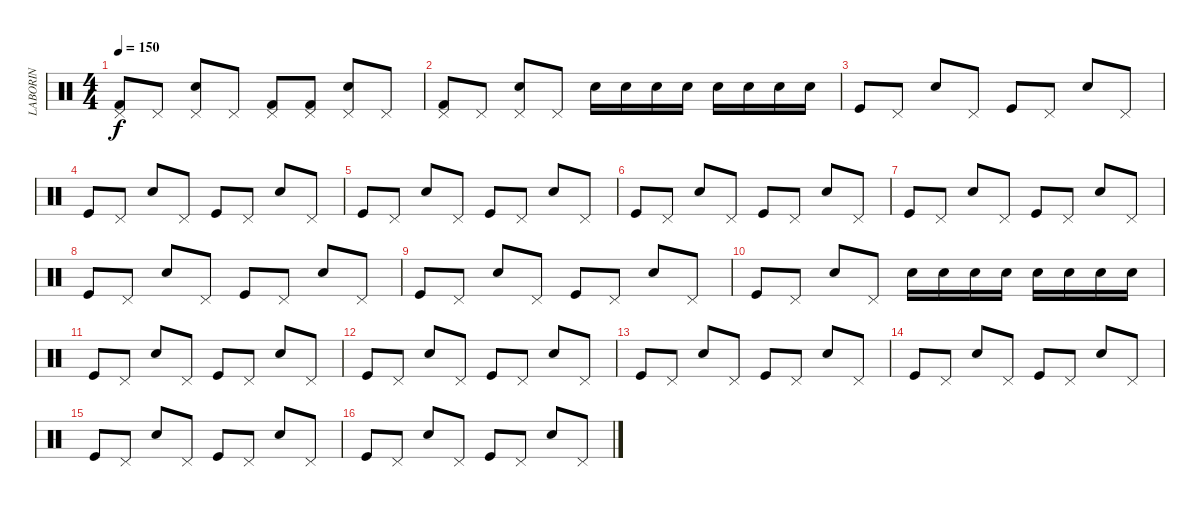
\track ("LABORIN" "LABORIN") {instrument percussion}
\staff {score}
\articulation defaults
\ts (4 4)
\tempo 150
\clef neutral
\ks c
("Kick (hit) 2" "Pedal Hi-Hat (hit)").8{dy f} "Pedal Hi-Hat (hit)".8 ("Snare (hit) 2" "Pedal Hi-Hat (hit)").8 "Pedal Hi-Hat (hit)".8 ("Kick (hit) 2" "Pedal Hi-Hat (hit)").8 ("Kick (hit) 2" "Pedal Hi-Hat (hit)").8 ("Snare (hit) 2" "Pedal Hi-Hat (hit)").8 "Pedal Hi-Hat (hit)".8 |
("Kick (hit) 2" "Pedal Hi-Hat (hit)").8 "Pedal Hi-Hat (hit)".8 ("Snare (hit) 2" "Pedal Hi-Hat (hit)").8 "Pedal Hi-Hat (hit)".8 "Snare (hit) 2".16 "Snare (hit) 2".16 "Snare (hit) 2".16 "Snare (hit) 2".16 "Snare (hit) 2".16 "Snare (hit) 2".16 "Snare (hit) 2".16 "Snare (hit) 2".16 |
"Kick (hit)".8 "Pedal Hi-Hat (hit)".8 "Snare (hit) 2".8 "Pedal Hi-Hat (hit)".8 "Kick (hit)".8 "Pedal Hi-Hat (hit)".8 "Snare (hit) 2".8 "Pedal Hi-Hat (hit)".8 |
"Kick (hit)".8 "Pedal Hi-Hat (hit)".8 "Snare (hit) 2".8 "Pedal Hi-Hat (hit)".8 "Kick (hit)".8 "Pedal Hi-Hat (hit)".8 "Snare (hit) 2".8 "Pedal Hi-Hat (hit)".8 |
"Kick (hit)".8 "Pedal Hi-Hat (hit)".8 "Snare (hit) 2".8 "Pedal Hi-Hat (hit)".8 "Kick (hit)".8 "Pedal Hi-Hat (hit)".8 "Snare (hit) 2".8 "Pedal Hi-Hat (hit)".8 |
"Kick (hit)".8 "Pedal Hi-Hat (hit)".8 "Snare (hit) 2".8 "Pedal Hi-Hat (hit)".8 "Kick (hit)".8 "Pedal Hi-Hat (hit)".8 "Snare (hit) 2".8 "Pedal Hi-Hat (hit)".8 |
"Kick (hit)".8 "Pedal Hi-Hat (hit)".8 "Snare (hit) 2".8 "Pedal Hi-Hat (hit)".8 "Kick (hit)".8 "Pedal Hi-Hat (hit)".8 "Snare (hit) 2".8 "Pedal Hi-Hat (hit)".8 |
"Kick (hit)".8 "Pedal Hi-Hat (hit)".8 "Snare (hit) 2".8 "Pedal Hi-Hat (hit)".8 "Kick (hit)".8 "Pedal Hi-Hat (hit)".8 "Snare (hit) 2".8 "Pedal Hi-Hat (hit)".8 |
"Kick (hit)".8 "Pedal Hi-Hat (hit)".8 "Snare (hit) 2".8 "Pedal Hi-Hat (hit)".8 "Kick (hit)".8 "Pedal Hi-Hat (hit)".8 "Snare (hit) 2".8 "Pedal Hi-Hat (hit)".8 |
"Kick (hit)".8 "Pedal Hi-Hat (hit)".8 "Snare (hit) 2".8 "Pedal Hi-Hat (hit)".8 "Snare (hit) 2".16 "Snare (hit) 2".16 "Snare (hit) 2".16 "Snare (hit) 2".16 "Snare (hit) 2".16 "Snare (hit) 2".16 "Snare (hit) 2".16 "Snare (hit) 2".16 |
"Kick (hit)".8 "Pedal Hi-Hat (hit)".8 "Snare (hit) 2".8 "Pedal Hi-Hat (hit)".8 "Kick (hit)".8 "Pedal Hi-Hat (hit)".8 "Snare (hit) 2".8 "Pedal Hi-Hat (hit)".8 |
"Kick (hit)".8 "Pedal Hi-Hat (hit)".8 "Snare (hit) 2".8 "Pedal Hi-Hat (hit)".8 "Kick (hit)".8 "Pedal Hi-Hat (hit)".8 "Snare (hit) 2".8 "Pedal Hi-Hat (hit)".8 |
"Kick (hit)".8 "Pedal Hi-Hat (hit)".8 "Snare (hit) 2".8 "Pedal Hi-Hat (hit)".8 "Kick (hit)".8 "Pedal Hi-Hat (hit)".8 "Snare (hit) 2".8 "Pedal Hi-Hat (hit)".8 |
"Kick (hit)".8 "Pedal Hi-Hat (hit)".8 "Snare (hit) 2".8 "Pedal Hi-Hat (hit)".8 "Kick (hit)".8 "Pedal Hi-Hat (hit)".8 "Snare (hit) 2".8 "Pedal Hi-Hat (hit)".8 |
"Kick (hit)".8 "Pedal Hi-Hat (hit)".8 "Snare (hit) 2".8 "Pedal Hi-Hat (hit)".8 "Kick (hit)".8 "Pedal Hi-Hat (hit)".8 "Snare (hit) 2".8 "Pedal Hi-Hat (hit)".8 |
"Kick (hit)".8 "Pedal Hi-Hat (hit)".8 "Snare (hit) 2".8 "Pedal Hi-Hat (hit)".8 "Kick (hit)".8 "Pedal Hi-Hat (hit)".8 "Snare (hit) 2".8 "Pedal Hi-Hat (hit)".8
